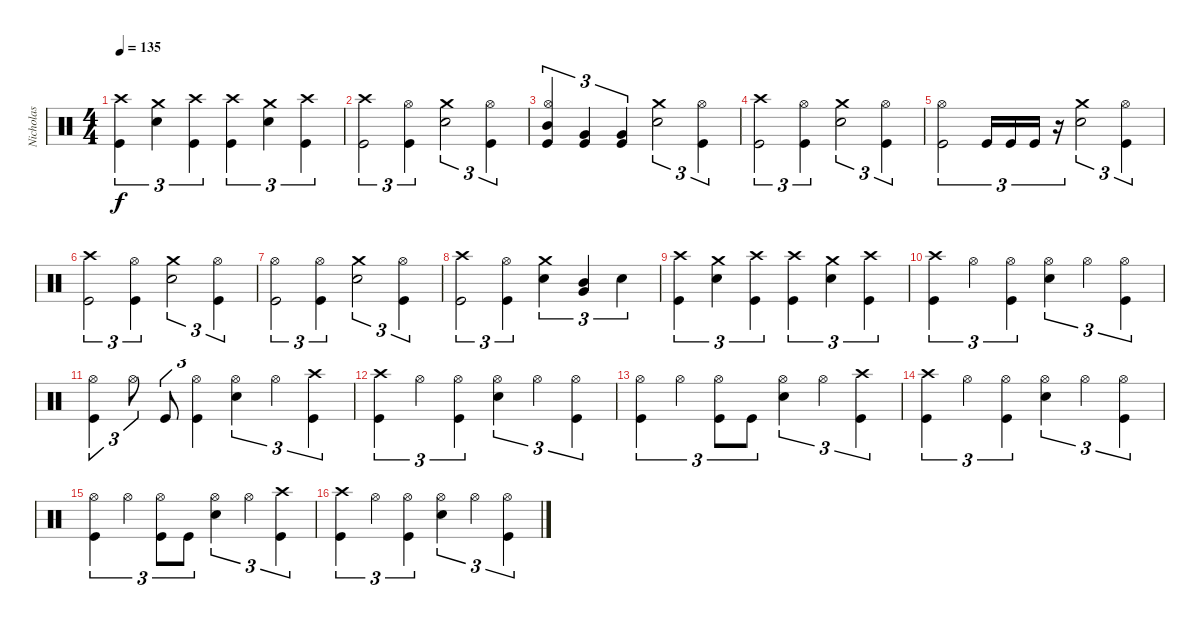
\track ("Nicholas" "Nicholas") {instrument percussion}
\staff {score}
\articulation defaults
\ts (4 4)
\tempo 135
\clef neutral
\ks c
("Crash high (hit)" "Kick (hit)").4{tu (3 2) dy f} ("Crash medium (hit)" "Electric Snare (hit)").4{tu (3 2)} ("Crash high (hit)" "Kick (hit)").4{tu (3 2)} ("Crash high (hit)" "Kick (hit)").4{tu (3 2)} ("Crash medium (hit)" "Electric Snare (hit)").4{tu (3 2)} ("Crash high (hit)" "Kick (hit)").4{tu (3 2)} |
("Crash high (hit)" "Kick (hit)").2{tu (3 2)} ("Hi-Hat (open)" "Kick (hit)").4{tu (3 2)} ("Crash medium (hit)" "Electric Snare (hit)").2{tu (3 2)} ("Hi-Hat (open)" "Kick (hit)").4{tu (3 2)} |
("Hi-Hat (open)" "Mid Tom (hit)" "Kick (hit)").4{tu (3 2)} ("Very Low Tom (hit)" "Kick (hit)").4{tu (3 2)} ("Very Low Tom (hit)" "Kick (hit)").4{tu (3 2)} ("Crash medium (hit)" "Electric Snare (hit)").2{tu (3 2)} ("Hi-Hat (open)" "Kick (hit)").4{tu (3 2)} |
("Crash high (hit)" "Kick (hit)").2{tu (3 2)} ("Hi-Hat (open)" "Kick (hit)").4{tu (3 2)} ("Crash medium (hit)" "Electric Snare (hit)").2{tu (3 2)} ("Hi-Hat (open)" "Kick (hit)").4{tu (3 2)} |
("Hi-Hat (open)" "Kick (hit)").2{tu (3 2)} "Kick (hit)".16{tu (3 2)} "Kick (hit)".16{tu (3 2)} "Kick (hit)".16{tu (3 2)} r.16{tu (3 2)} ("Crash medium (hit)" "Electric Snare (hit)").2{tu (3 2)} ("Hi-Hat (open)" "Kick (hit)").4{tu (3 2)} |
("Crash high (hit)" "Kick (hit)").2{tu (3 2)} ("Hi-Hat (open)" "Kick (hit)").4{tu (3 2)} ("Crash medium (hit)" "Electric Snare (hit)").2{tu (3 2)} ("Hi-Hat (open)" "Kick (hit)").4{tu (3 2)} |
("Hi-Hat (open)" "Kick (hit)").2{tu (3 2)} ("Hi-Hat (open)" "Kick (hit)").4{tu (3 2)} ("Crash medium (hit)" "Electric Snare (hit)").2{tu (3 2)} ("Hi-Hat (open)" "Kick (hit)").4{tu (3 2)} |
("Crash high (hit)" "Kick (hit)").2{tu (3 2)} ("Hi-Hat (open)" "Kick (hit)").4{tu (3 2)} ("Crash medium (hit)" "Electric Snare (hit)").4{tu (3 2)} ("Mid Tom (hit)" "Very Low Tom (hit)").4{tu (3 2)} "Electric Snare (hit)".4{tu (3 2)} |
("Crash high (hit)" "Kick (hit)").4{tu (3 2)} ("Crash medium (hit)" "Electric Snare (hit)").4{tu (3 2)} ("Crash high (hit)" "Kick (hit)").4{tu (3 2)} ("Crash high (hit)" "Kick (hit)").4{tu (3 2)} ("Crash medium (hit)" "Electric Snare (hit)").4{tu (3 2)} ("Crash high (hit)" "Kick (hit)").4{tu (3 2)} |
("Crash high (hit)" "Kick (hit)").4{tu (3 2)} "Hi-Hat (open)".4{tu (3 2)} ("Hi-Hat (open)" "Kick (hit)").4{tu (3 2)} ("Hi-Hat (open)" "Electric Snare (hit)").4{tu (3 2)} "Hi-Hat (open)".4{tu (3 2)} ("Hi-Hat (open)" "Kick (hit)").4{tu (3 2)} |
("Hi-Hat (open)" "Kick (hit)").4{tu (3 2)} "Hi-Hat (open)".8{tu (3 2)} "Kick (hit)".8{tu (3 2)} ("Hi-Hat (open)" "Kick (hit)").4{tu (3 2)} ("Hi-Hat (open)" "Electric Snare (hit)").4{tu (3 2)} "Hi-Hat (open)".4{tu (3 2)} ("Crash high (hit)" "Kick (hit)").4{tu (3 2)} |
("Crash high (hit)" "Kick (hit)").4{tu (3 2)} "Hi-Hat (open)".4{tu (3 2)} ("Hi-Hat (open)" "Kick (hit)").4{tu (3 2)} ("Hi-Hat (open)" "Electric Snare (hit)").4{tu (3 2)} "Hi-Hat (open)".4{tu (3 2)} ("Hi-Hat (open)" "Kick (hit)").4{tu (3 2)} |
("Hi-Hat (open)" "Kick (hit)").4{tu (3 2)} "Hi-Hat (open)".4{tu (3 2)} ("Hi-Hat (open)" "Kick (hit)").8{tu (3 2)} "Kick (hit)".8{tu (3 2)} ("Hi-Hat (open)" "Electric Snare (hit)").4{tu (3 2)} "Hi-Hat (open)".4{tu (3 2)} ("Crash high (hit)" "Kick (hit)").4{tu (3 2)} |
("Crash high (hit)" "Kick (hit)").4{tu (3 2)} "Hi-Hat (open)".4{tu (3 2)} ("Hi-Hat (open)" "Kick (hit)").4{tu (3 2)} ("Hi-Hat (open)" "Electric Snare (hit)").4{tu (3 2)} "Hi-Hat (open)".4{tu (3 2)} ("Hi-Hat (open)" "Kick (hit)").4{tu (3 2)} |
("Hi-Hat (open)" "Kick (hit)").4{tu (3 2)} "Hi-Hat (open)".4{tu (3 2)} ("Hi-Hat (open)" "Kick (hit)").8{tu (3 2)} "Kick (hit)".8{tu (3 2)} ("Hi-Hat (open)" "Electric Snare (hit)").4{tu (3 2)} "Hi-Hat (open)".4{tu (3 2)} ("Crash high (hit)" "Kick (hit)").4{tu (3 2)} |
("Crash high (hit)" "Kick (hit)").4{tu (3 2)} "Hi-Hat (open)".4{tu (3 2)} ("Hi-Hat (open)" "Kick (hit)").4{tu (3 2)} ("Hi-Hat (open)" "Electric Snare (hit)").4{tu (3 2)} "Hi-Hat (open)".4{tu (3 2)} ("Hi-Hat (open)" "Kick (hit)").4{tu (3 2)}
